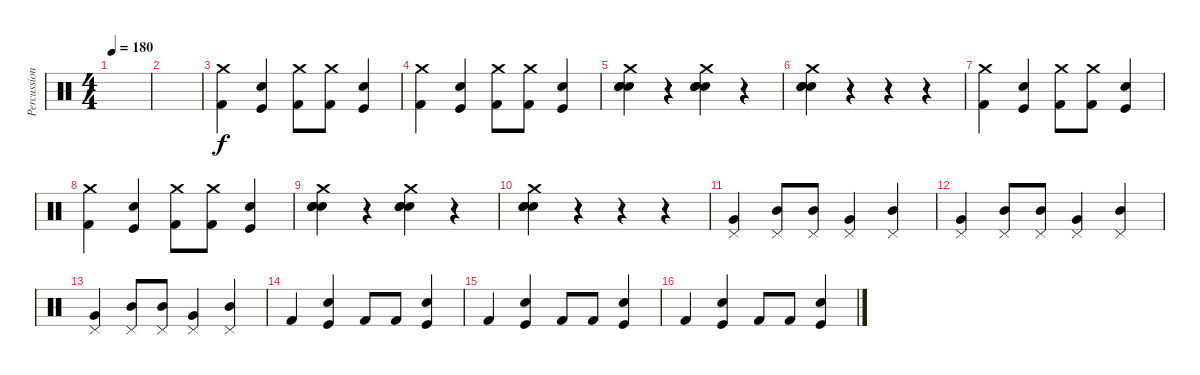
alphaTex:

\track ("Percussion" "Percussion") {instrument percussion}
\staff
\articulation defaults
\ts (4 4)
\tempo 180
\clef neutral
\ks c
|
|
("Crash medium (hit)" "Kick (hit) 2").4{volume 16} ("Kick (hit)" "Snare (hit) 2").4 ("Crash medium (hit)" "Kick (hit) 2").8 ("Crash medium (hit)" "Kick (hit) 2").8 ("Kick (hit)" "Snare (hit) 2").4 |
("Crash medium (hit)" "Kick (hit) 2").4 ("Kick (hit)" "Snare (hit) 2").4 ("Crash medium (hit)" "Kick (hit) 2").8 ("Crash medium (hit)" "Kick (hit) 2").8 ("Kick (hit)" "Snare (hit) 2").4 |
("Crash medium (hit)" "Snare (hit) 2" "Snare (hit) 2" "Snare (hit) 2").4 r.4 ("Crash medium (hit)" "Snare (hit) 2" "Snare (hit) 2" "Snare (hit) 2").4 r.4 |
("Crash medium (hit)" "Snare (hit) 2" "Snare (hit) 2" "Snare (hit) 2").4 r.4 r.4 r.4 |
("Crash medium (hit)" "Kick (hit) 2").4{volume 16} ("Kick (hit)" "Snare (hit) 2").4 ("Crash medium (hit)" "Kick (hit) 2").8 ("Crash medium (hit)" "Kick (hit) 2").8 ("Kick (hit)" "Snare (hit) 2").4 |
("Crash medium (hit)" "Kick (hit) 2").4 ("Kick (hit)" "Snare (hit) 2").4 ("Crash medium (hit)" "Kick (hit) 2").8 ("Crash medium (hit)" "Kick (hit) 2").8 ("Kick (hit)" "Snare (hit) 2").4 |
("Crash medium (hit)" "Snare (hit) 2" "Snare (hit) 2" "Snare (hit) 2").4 r.4 ("Crash medium (hit)" "Snare (hit) 2" "Snare (hit) 2" "Snare (hit) 2").4 r.4 |
("Crash medium (hit)" "Snare (hit) 2" "Snare (hit) 2" "Snare (hit) 2").4 r.4 r.4 r.4 |
("Pedal Hi-Hat (hit)" "Very Low Tom (hit)").4 ("Pedal Hi-Hat (hit)" "Mid Tom (hit)").8 ("Pedal Hi-Hat (hit)" "Mid Tom (hit)").8 ("Pedal Hi-Hat (hit)" "Very Low Tom (hit)").4 ("Pedal Hi-Hat (hit)" "Mid Tom (hit)").4 |
("Pedal Hi-Hat (hit)" "Very Low Tom (hit)").4 ("Pedal Hi-Hat (hit)" "Mid Tom (hit)").8 ("Pedal Hi-Hat (hit)" "Mid Tom (hit)").8 ("Pedal Hi-Hat (hit)" "Very Low Tom (hit)").4 ("Pedal Hi-Hat (hit)" "Mid Tom (hit)").4 |
("Pedal Hi-Hat (hit)" "Very Low Tom (hit)").4 ("Pedal Hi-Hat (hit)" "Mid Tom (hit)").8 ("Pedal Hi-Hat (hit)" "Mid Tom (hit)").8 ("Pedal Hi-Hat (hit)" "Very Low Tom (hit)").4 ("Pedal Hi-Hat (hit)" "Mid Tom (hit)").4 |
"Kick (hit) 2".4 ("Kick (hit)" "Snare (hit) 2").4 "Kick (hit) 2".8 "Kick (hit) 2".8 ("Kick (hit)" "Snare (hit) 2").4 |
"Kick (hit) 2".4 ("Kick (hit)" "Snare (hit) 2").4 "Kick (hit) 2".8 "Kick (hit) 2".8 ("Kick (hit)" "Snare (hit) 2").4 |
"Kick (hit) 2".4 ("Kick (hit)" "Snare (hit) 2").4 "Kick (hit) 2".8 "Kick (hit) 2".8 ("Kick (hit)" "Snare (hit) 2").4
